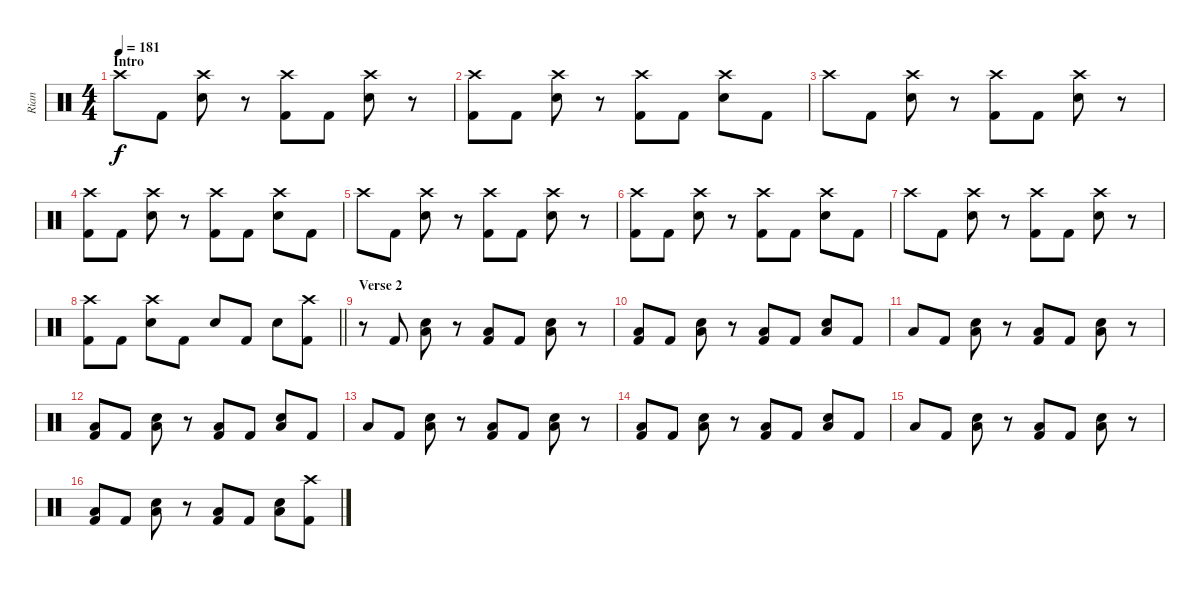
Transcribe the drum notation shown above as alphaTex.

\track ("Rian" "Rian") {instrument percussion bank 255}
\staff {score}
\articulation defaults
\ts (4 4)
\section ("" "Intro")
\tempo 181
\clef neutral
\ks c "Crash high (hit)".8{dy f} "Kick (hit) 2".8
("Crash high (hit)" "Electric Snare (hit)").8 r.8 ("Crash high (hit)" "Kick (hit) 2").8 "Kick (hit) 2".8 ("Crash high (hit)" "Electric Snare (hit)").8 r.8 |
("Crash high (hit)" "Kick (hit) 2").8 "Kick (hit) 2".8 ("Crash high (hit)" "Electric Snare (hit)").8 r.8 ("Crash high (hit)" "Kick (hit) 2").8 "Kick (hit) 2".8 ("Crash high (hit)" "Electric Snare (hit)").8 "Kick (hit) 2".8 |
"Crash high (hit)".8 "Kick (hit) 2".8 ("Crash high (hit)" "Electric Snare (hit)").8 r.8 ("Crash high (hit)" "Kick (hit) 2").8 "Kick (hit) 2".8 ("Crash high (hit)" "Electric Snare (hit)").8 r.8 |
("Crash high (hit)" "Kick (hit) 2").8 "Kick (hit) 2".8 ("Crash high (hit)" "Electric Snare (hit)").8 r.8 ("Crash high (hit)" "Kick (hit) 2").8 "Kick (hit) 2".8 ("Crash high (hit)" "Electric Snare (hit)").8 "Kick (hit) 2".8 |
"Crash high (hit)".8 "Kick (hit) 2".8 ("Crash high (hit)" "Electric Snare (hit)").8 r.8 ("Crash high (hit)" "Kick (hit) 2").8 "Kick (hit) 2".8 ("Crash high (hit)" "Electric Snare (hit)").8 r.8 |
("Crash high (hit)" "Kick (hit) 2").8 "Kick (hit) 2".8 ("Crash high (hit)" "Electric Snare (hit)").8 r.8 ("Crash high (hit)" "Kick (hit) 2").8 "Kick (hit) 2".8 ("Crash high (hit)" "Electric Snare (hit)").8 "Kick (hit) 2".8 |
"Crash high (hit)".8 "Kick (hit) 2".8 ("Crash high (hit)" "Electric Snare (hit)").8 r.8 ("Crash high (hit)" "Kick (hit) 2").8 "Kick (hit) 2".8 ("Crash high (hit)" "Electric Snare (hit)").8 r.8 |
\barLineRight lightlight
("Crash high (hit)" "Kick (hit) 2").8 "Kick (hit) 2".8 ("Crash high (hit)" "Electric Snare (hit)").8 "Kick (hit) 2".8 "Electric Snare (hit)".8 "Kick (hit) 2".8 "Electric Snare (hit)".8 ("Crash high (hit)" "Kick (hit) 2").8 |
\section ("" "Verse 2")
r.8 "Kick (hit) 2".8 ("Electric Snare (hit)" "Low Tom (hit)").8 r.8 ("Low Tom (hit)" "Kick (hit) 2").8 "Kick (hit) 2".8 ("Electric Snare (hit)" "Low Tom (hit)").8 r.8 |
("Low Tom (hit)" "Kick (hit) 2").8 "Kick (hit) 2".8 ("Electric Snare (hit)" "Low Tom (hit)").8 r.8 ("Low Tom (hit)" "Kick (hit) 2").8 "Kick (hit) 2".8 ("Electric Snare (hit)" "Low Tom (hit)").8 "Kick (hit) 2".8 |
"Low Tom (hit)".8 "Kick (hit) 2".8 ("Electric Snare (hit)" "Low Tom (hit)").8 r.8 ("Low Tom (hit)" "Kick (hit) 2").8 "Kick (hit) 2".8 ("Electric Snare (hit)" "Low Tom (hit)").8 r.8 |
("Low Tom (hit)" "Kick (hit) 2").8 "Kick (hit) 2".8 ("Electric Snare (hit)" "Low Tom (hit)").8 r.8 ("Low Tom (hit)" "Kick (hit) 2").8 "Kick (hit) 2".8 ("Electric Snare (hit)" "Low Tom (hit)").8 "Kick (hit) 2".8 |
"Low Tom (hit)".8 "Kick (hit) 2".8 ("Electric Snare (hit)" "Low Tom (hit)").8 r.8 ("Low Tom (hit)" "Kick (hit) 2").8 "Kick (hit) 2".8 ("Electric Snare (hit)" "Low Tom (hit)").8 r.8 |
("Low Tom (hit)" "Kick (hit) 2").8 "Kick (hit) 2".8 ("Electric Snare (hit)" "Low Tom (hit)").8 r.8 ("Low Tom (hit)" "Kick (hit) 2").8 "Kick (hit) 2".8 ("Electric Snare (hit)" "Low Tom (hit)").8 "Kick (hit) 2".8 |
"Low Tom (hit)".8 "Kick (hit) 2".8 ("Electric Snare (hit)" "Low Tom (hit)").8 r.8 ("Low Tom (hit)" "Kick (hit) 2").8 "Kick (hit) 2".8 ("Electric Snare (hit)" "Low Tom (hit)").8 r.8 |
("Low Tom (hit)" "Kick (hit) 2").8 "Kick (hit) 2".8 ("Electric Snare (hit)" "Low Tom (hit)").8 r.8 ("Low Tom (hit)" "Kick (hit) 2").8 "Kick (hit) 2".8 ("Electric Snare (hit)" "Low Tom (hit)").8 ("Crash high (hit)" "Kick (hit) 2").8
